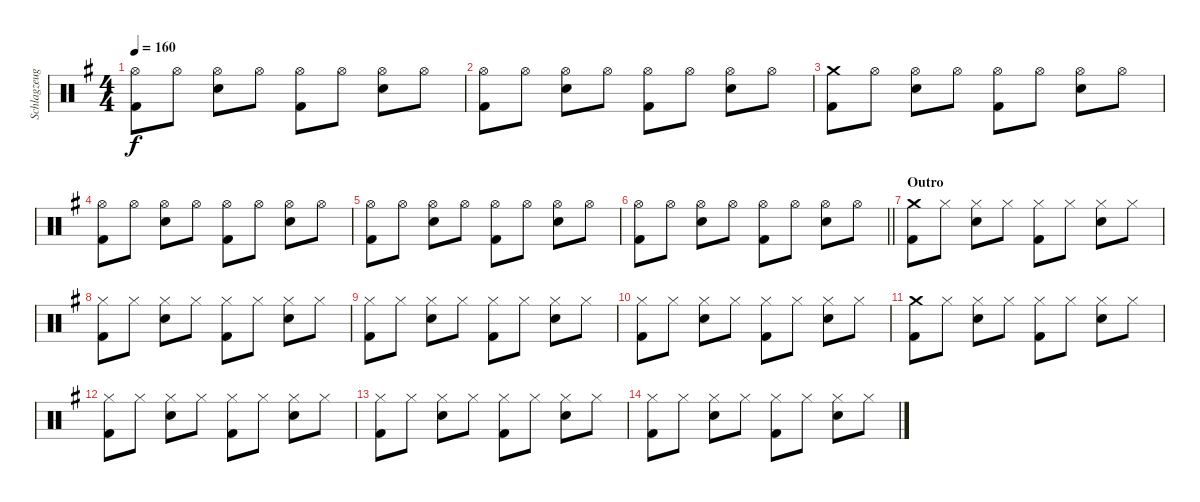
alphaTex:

\track ("Schlagzeug" "Schlagzeug") {instrument percussion}
\staff {score}
\articulation defaults
\ts (4 4)
\tempo 160
\clef neutral
\ks g
("Hi-Hat (open)" "Kick (hit) 2").8{dy f} "Hi-Hat (open)".8 ("Hi-Hat (open)" "Snare (hit) 2").8 "Hi-Hat (open)".8 ("Hi-Hat (open)" "Kick (hit) 2").8 "Hi-Hat (open)".8 ("Hi-Hat (open)" "Snare (hit) 2").8 "Hi-Hat (open)".8 |
("Hi-Hat (open)" "Kick (hit) 2").8 "Hi-Hat (open)".8 ("Hi-Hat (open)" "Snare (hit) 2").8 "Hi-Hat (open)".8 ("Hi-Hat (open)" "Kick (hit) 2").8 "Hi-Hat (open)".8 ("Hi-Hat (open)" "Snare (hit) 2").8 "Hi-Hat (open)".8 |
("Crash medium (hit)" "Kick (hit) 2").8 "Hi-Hat (open)".8 ("Hi-Hat (open)" "Snare (hit) 2").8 "Hi-Hat (open)".8 ("Hi-Hat (open)" "Kick (hit) 2").8 "Hi-Hat (open)".8 ("Hi-Hat (open)" "Snare (hit) 2").8 "Hi-Hat (open)".8 |
("Hi-Hat (open)" "Kick (hit) 2").8 "Hi-Hat (open)".8 ("Hi-Hat (open)" "Snare (hit) 2").8 "Hi-Hat (open)".8 ("Hi-Hat (open)" "Kick (hit) 2").8 "Hi-Hat (open)".8 ("Hi-Hat (open)" "Snare (hit) 2").8 "Hi-Hat (open)".8 |
("Hi-Hat (open)" "Kick (hit) 2").8 "Hi-Hat (open)".8 ("Hi-Hat (open)" "Snare (hit) 2").8 "Hi-Hat (open)".8 ("Hi-Hat (open)" "Kick (hit) 2").8 "Hi-Hat (open)".8 ("Hi-Hat (open)" "Snare (hit) 2").8 "Hi-Hat (open)".8 |
\barLineRight lightlight
("Hi-Hat (open)" "Kick (hit) 2").8 "Hi-Hat (open)".8 ("Hi-Hat (open)" "Snare (hit) 2").8 "Hi-Hat (open)".8 ("Hi-Hat (open)" "Kick (hit) 2").8 "Hi-Hat (open)".8 ("Hi-Hat (open)" "Snare (hit) 2").8 "Hi-Hat (open)".8 |
\section ("" "Outro")
("Crash medium (hit)" "Kick (hit) 2").8 "Hi-Hat (closed)".8 ("Hi-Hat (closed)" "Snare (hit) 2").8 "Hi-Hat (closed)".8 ("Hi-Hat (closed)" "Kick (hit) 2").8 "Hi-Hat (closed)".8 ("Hi-Hat (closed)" "Snare (hit) 2").8 "Hi-Hat (closed)".8 |
("Hi-Hat (closed)" "Kick (hit) 2").8 "Hi-Hat (closed)".8 ("Hi-Hat (closed)" "Snare (hit) 2").8 "Hi-Hat (closed)".8 ("Hi-Hat (closed)" "Kick (hit) 2").8 "Hi-Hat (closed)".8 ("Hi-Hat (closed)" "Snare (hit) 2").8 "Hi-Hat (closed)".8 |
("Hi-Hat (closed)" "Kick (hit) 2").8 "Hi-Hat (closed)".8 ("Hi-Hat (closed)" "Snare (hit) 2").8 "Hi-Hat (closed)".8 ("Hi-Hat (closed)" "Kick (hit) 2").8 "Hi-Hat (closed)".8 ("Hi-Hat (closed)" "Snare (hit) 2").8 "Hi-Hat (closed)".8 |
("Hi-Hat (closed)" "Kick (hit) 2").8 "Hi-Hat (closed)".8 ("Hi-Hat (closed)" "Snare (hit) 2").8 "Hi-Hat (closed)".8 ("Hi-Hat (closed)" "Kick (hit) 2").8 "Hi-Hat (closed)".8 ("Hi-Hat (closed)" "Snare (hit) 2").8 "Hi-Hat (closed)".8 |
("Crash medium (hit)" "Kick (hit) 2").8 "Hi-Hat (closed)".8 ("Hi-Hat (closed)" "Snare (hit) 2").8 "Hi-Hat (closed)".8 ("Hi-Hat (closed)" "Kick (hit) 2").8 "Hi-Hat (closed)".8 ("Hi-Hat (closed)" "Snare (hit) 2").8 "Hi-Hat (closed)".8 |
("Hi-Hat (closed)" "Kick (hit) 2").8 "Hi-Hat (closed)".8 ("Hi-Hat (closed)" "Snare (hit) 2").8 "Hi-Hat (closed)".8 ("Hi-Hat (closed)" "Kick (hit) 2").8 "Hi-Hat (closed)".8 ("Hi-Hat (closed)" "Snare (hit) 2").8 "Hi-Hat (closed)".8 |
("Hi-Hat (closed)" "Kick (hit) 2").8 "Hi-Hat (closed)".8 ("Hi-Hat (closed)" "Snare (hit) 2").8 "Hi-Hat (closed)".8 ("Hi-Hat (closed)" "Kick (hit) 2").8 "Hi-Hat (closed)".8 ("Hi-Hat (closed)" "Snare (hit) 2").8 "Hi-Hat (closed)".8 |
("Hi-Hat (closed)" "Kick (hit) 2").8 "Hi-Hat (closed)".8 ("Hi-Hat (closed)" "Snare (hit) 2").8 "Hi-Hat (closed)".8 ("Hi-Hat (closed)" "Kick (hit) 2").8 "Hi-Hat (closed)".8 ("Hi-Hat (closed)" "Snare (hit) 2").8 "Hi-Hat (closed)".8
